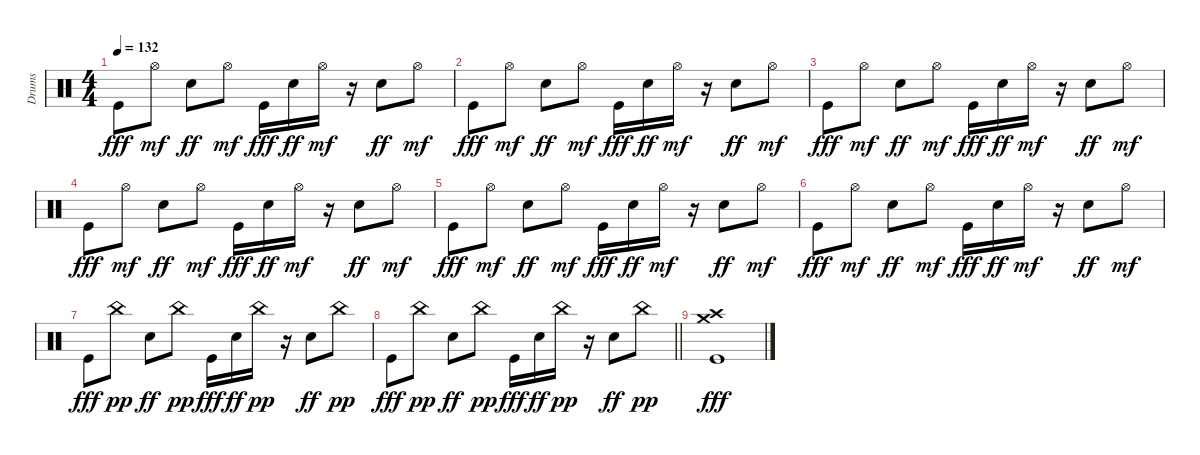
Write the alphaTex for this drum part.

\track ("Drums" "Drums") {instrument percussion}
\staff {score}
\articulation defaults
\ts (4 4)
\tempo 132
\clef neutral
\ks c "Kick (hit)".8{dy fff} "Hi-Hat (open)".8{dy mf} "Snare (hit) 2".8{dy ff} "Hi-Hat (open)".8{dy mf} "Kick (hit)".16{dy fff} "Snare (hit) 2".16{dy ff} "Hi-Hat (open)".16{dy mf}
r.16 "Snare (hit) 2".8{dy ff} "Hi-Hat (open)".8{dy mf} |
"Kick (hit)".8{dy fff} "Hi-Hat (open)".8{dy mf} "Snare (hit) 2".8{dy ff} "Hi-Hat (open)".8{dy mf} "Kick (hit)".16{dy fff} "Snare (hit) 2".16{dy ff} "Hi-Hat (open)".16{dy mf} r.16 "Snare (hit) 2".8{dy ff} "Hi-Hat (open)".8{dy mf} |
"Kick (hit)".8{dy fff} "Hi-Hat (open)".8{dy mf} "Snare (hit) 2".8{dy ff} "Hi-Hat (open)".8{dy mf} "Kick (hit)".16{dy fff} "Snare (hit) 2".16{dy ff} "Hi-Hat (open)".16{dy mf} r.16 "Snare (hit) 2".8{dy ff} "Hi-Hat (open)".8{dy mf} |
"Kick (hit)".8{dy fff} "Hi-Hat (open)".8{dy mf} "Snare (hit) 2".8{dy ff} "Hi-Hat (open)".8{dy mf} "Kick (hit)".16{dy fff} "Snare (hit) 2".16{dy ff} "Hi-Hat (open)".16{dy mf} r.16 "Snare (hit) 2".8{dy ff} "Hi-Hat (open)".8{dy mf} |
"Kick (hit)".8{dy fff} "Hi-Hat (open)".8{dy mf} "Snare (hit) 2".8{dy ff} "Hi-Hat (open)".8{dy mf} "Kick (hit)".16{dy fff} "Snare (hit) 2".16{dy ff} "Hi-Hat (open)".16{dy mf} r.16 "Snare (hit) 2".8{dy ff} "Hi-Hat (open)".8{dy mf} |
"Kick (hit)".8{dy fff} "Hi-Hat (open)".8{dy mf} "Snare (hit) 2".8{dy ff} "Hi-Hat (open)".8{dy mf} "Kick (hit)".16{dy fff} "Snare (hit) 2".16{dy ff} "Hi-Hat (open)".16{dy mf} r.16 "Snare (hit) 2".8{dy ff} "Hi-Hat (open)".8{dy mf} |
"Kick (hit)".8{dy fff} "China (hit)".8{dy pp} "Snare (hit) 2".8{dy ff} "China (hit)".8{dy pp} "Kick (hit)".16{dy fff} "Snare (hit) 2".16{dy ff} "China (hit)".16{dy pp} r.16 "Snare (hit) 2".8{dy ff} "China (hit)".8{dy pp} |
\barLineRight lightlight "Kick (hit)".8{dy fff} "China (hit)".8{dy pp} "Snare (hit) 2".8{dy ff} "China (hit)".8{dy pp} "Kick (hit)".16{dy fff} "Snare (hit) 2".16{dy ff} "China (hit)".16{dy pp}
r.16 "Snare (hit) 2".8{dy ff} "China (hit)".8{dy pp} |
("Crash high (hit)" "Crash medium (hit)" "Kick (hit)").1{dy fff}
